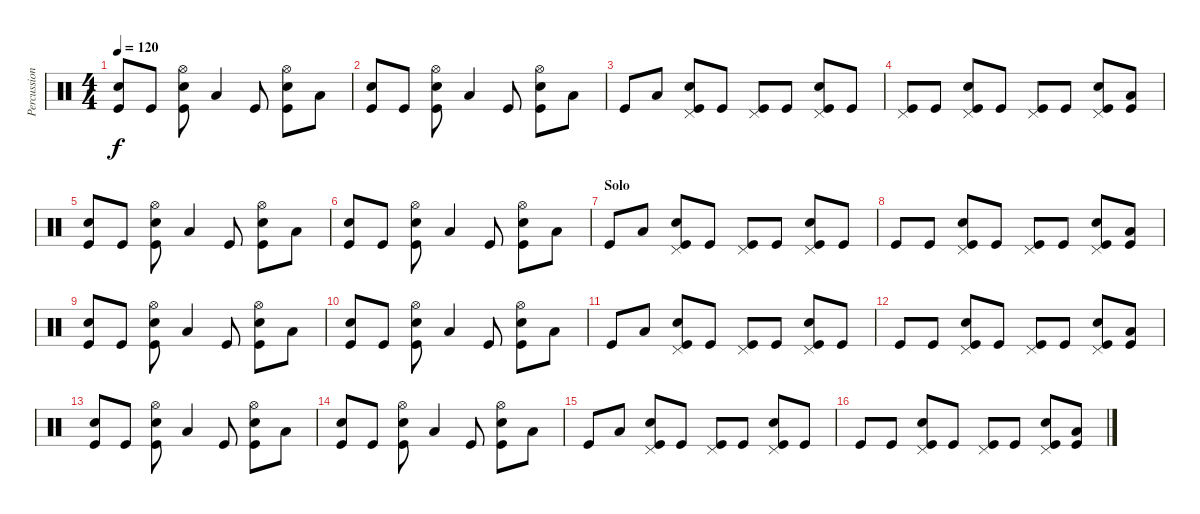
\track ("Percussion" "Percussion") {instrument percussion}
\staff {score}
\articulation defaults
\ts (4 4)
\tempo 120
\clef neutral
\ks c
("Kick (hit)" "Snare (hit) 2").8{dy f} "Kick (hit)".8 ("Snare (hit) 2" "Kick (hit)" "Hi-Hat (open)").8 "Low Floor Tom (hit)".4 "Kick (hit)".8 ("Snare (hit) 2" "Kick (hit)" "Hi-Hat (open)").8 "Low Tom (hit)".8 |
("Kick (hit)" "Snare (hit) 2").8 "Kick (hit)".8 ("Snare (hit) 2" "Kick (hit)" "Hi-Hat (open)").8 "Low Floor Tom (hit)".4 "Kick (hit)".8 ("Snare (hit) 2" "Kick (hit)" "Hi-Hat (open)").8 "Low Tom (hit)".8 |
"Kick (hit)".8 "Low Tom (hit)".8 ("Snare (hit) 2" "Kick (hit)" "Pedal Hi-Hat (hit)").8 "Kick (hit)".8 ("Kick (hit)" "Pedal Hi-Hat (hit)").8 "Kick (hit)".8 ("Snare (hit) 2" "Kick (hit)" "Pedal Hi-Hat (hit)").8 "Kick (hit)".8 |
("Kick (hit)" "Pedal Hi-Hat (hit)").8 "Kick (hit)".8 ("Snare (hit) 2" "Kick (hit)" "Pedal Hi-Hat (hit)").8 "Kick (hit)".8 ("Kick (hit)" "Pedal Hi-Hat (hit)").8 "Kick (hit)".8 ("Snare (hit) 2" "Kick (hit)" "Pedal Hi-Hat (hit)").8 ("Low Tom (hit)" "Kick (hit)").8 |
("Kick (hit)" "Snare (hit) 2").8 "Kick (hit)".8 ("Snare (hit) 2" "Kick (hit)" "Hi-Hat (open)").8 "Low Floor Tom (hit)".4 "Kick (hit)".8 ("Snare (hit) 2" "Kick (hit)" "Hi-Hat (open)").8 "Low Tom (hit)".8 |
("Kick (hit)" "Snare (hit) 2").8 "Kick (hit)".8 ("Snare (hit) 2" "Kick (hit)" "Hi-Hat (open)").8 "Low Floor Tom (hit)".4 "Kick (hit)".8 ("Snare (hit) 2" "Kick (hit)" "Hi-Hat (open)").8 "Low Floor Tom (hit)".8 |
\section ("" "Solo")
"Kick (hit)".8 "Low Tom (hit)".8 ("Snare (hit) 2" "Kick (hit)" "Pedal Hi-Hat (hit)").8 "Kick (hit)".8 ("Kick (hit)" "Pedal Hi-Hat (hit)").8 "Kick (hit)".8 ("Snare (hit) 2" "Kick (hit)" "Pedal Hi-Hat (hit)").8 "Kick (hit)".8 |
"Kick (hit)".8 "Kick (hit)".8 ("Snare (hit) 2" "Kick (hit)" "Pedal Hi-Hat (hit)").8 "Kick (hit)".8 ("Kick (hit)" "Pedal Hi-Hat (hit)").8 "Kick (hit)".8 ("Snare (hit) 2" "Kick (hit)" "Pedal Hi-Hat (hit)").8 ("Low Tom (hit)" "Kick (hit)").8 |
("Kick (hit)" "Snare (hit) 2").8 "Kick (hit)".8 ("Snare (hit) 2" "Kick (hit)" "Hi-Hat (open)").8 "Low Floor Tom (hit)".4 "Kick (hit)".8 ("Snare (hit) 2" "Kick (hit)" "Hi-Hat (open)").8 "Low Tom (hit)".8 |
("Kick (hit)" "Snare (hit) 2").8 "Kick (hit)".8 ("Snare (hit) 2" "Kick (hit)" "Hi-Hat (open)").8 "Low Floor Tom (hit)".4 "Kick (hit)".8 ("Snare (hit) 2" "Kick (hit)" "Hi-Hat (open)").8 "Low Tom (hit)".8 |
"Kick (hit)".8 "Low Tom (hit)".8 ("Snare (hit) 2" "Kick (hit)" "Pedal Hi-Hat (hit)").8 "Kick (hit)".8 ("Kick (hit)" "Pedal Hi-Hat (hit)").8 "Kick (hit)".8 ("Snare (hit) 2" "Kick (hit)" "Pedal Hi-Hat (hit)").8 "Kick (hit)".8 |
"Kick (hit)".8 "Kick (hit)".8 ("Snare (hit) 2" "Kick (hit)" "Pedal Hi-Hat (hit)").8 "Kick (hit)".8 ("Kick (hit)" "Pedal Hi-Hat (hit)").8 "Kick (hit)".8 ("Snare (hit) 2" "Kick (hit)" "Pedal Hi-Hat (hit)").8 ("Low Tom (hit)" "Kick (hit)").8 |
("Kick (hit)" "Snare (hit) 2").8 "Kick (hit)".8 ("Snare (hit) 2" "Kick (hit)" "Hi-Hat (open)").8 "Low Floor Tom (hit)".4 "Kick (hit)".8 ("Snare (hit) 2" "Kick (hit)" "Hi-Hat (open)").8 "Low Tom (hit)".8 |
("Kick (hit)" "Snare (hit) 2").8 "Kick (hit)".8 ("Snare (hit) 2" "Kick (hit)" "Hi-Hat (open)").8 "Low Floor Tom (hit)".4 "Kick (hit)".8 ("Snare (hit) 2" "Kick (hit)" "Hi-Hat (open)").8 "Low Tom (hit)".8 |
"Kick (hit)".8 "Low Tom (hit)".8 ("Snare (hit) 2" "Kick (hit)" "Pedal Hi-Hat (hit)").8 "Kick (hit)".8 ("Kick (hit)" "Pedal Hi-Hat (hit)").8 "Kick (hit)".8 ("Snare (hit) 2" "Kick (hit)" "Pedal Hi-Hat (hit)").8 "Kick (hit)".8 |
"Kick (hit)".8 "Kick (hit)".8 ("Snare (hit) 2" "Kick (hit)" "Pedal Hi-Hat (hit)").8 "Kick (hit)".8 ("Kick (hit)" "Pedal Hi-Hat (hit)").8 "Kick (hit)".8 ("Snare (hit) 2" "Kick (hit)" "Pedal Hi-Hat (hit)").8 ("Low Tom (hit)" "Kick (hit)").8
